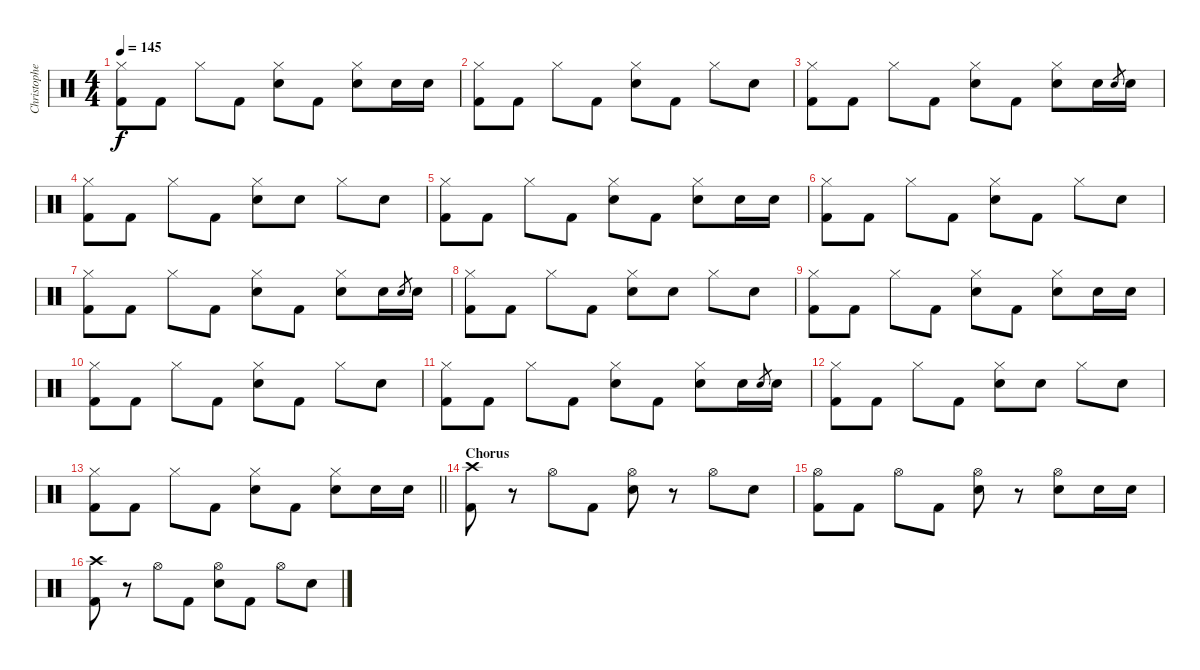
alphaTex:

\track ("Christopher - Drums" "Christophe") {instrument percussion}
\staff {score}
\articulation defaults
\ts (4 4)
\tempo 145
\clef neutral
\ks c
("Hi-Hat (closed)" "Kick (hit) 2").8{dy f} "Kick (hit) 2".8 "Hi-Hat (closed)".8 "Kick (hit) 2".8 ("Hi-Hat (closed)" "Electric Snare (hit)").8 "Kick (hit) 2".8 ("Hi-Hat (closed)" "Electric Snare (hit)").8 "Electric Snare (hit)".16 "Electric Snare (hit)".16 |
("Hi-Hat (closed)" "Kick (hit) 2").8 "Kick (hit) 2".8 "Hi-Hat (closed)".8 "Kick (hit) 2".8 ("Hi-Hat (closed)" "Electric Snare (hit)").8 "Kick (hit) 2".8 "Hi-Hat (closed)".8 "Electric Snare (hit)".8 |
("Hi-Hat (closed)" "Kick (hit) 2").8 "Kick (hit) 2".8 "Hi-Hat (closed)".8 "Kick (hit) 2".8 ("Hi-Hat (closed)" "Electric Snare (hit)").8 "Kick (hit) 2".8 ("Hi-Hat (closed)" "Electric Snare (hit)").8 "Electric Snare (hit)".16 "Electric Snare (hit)".8{gr} "Electric Snare (hit)".16 |
("Hi-Hat (closed)" "Kick (hit) 2").8 "Kick (hit) 2".8 "Hi-Hat (closed)".8 "Kick (hit) 2".8 ("Hi-Hat (closed)" "Electric Snare (hit)").8 "Electric Snare (hit)".8 "Hi-Hat (closed)".8 "Electric Snare (hit)".8 |
("Hi-Hat (closed)" "Kick (hit) 2").8 "Kick (hit) 2".8 "Hi-Hat (closed)".8 "Kick (hit) 2".8 ("Hi-Hat (closed)" "Electric Snare (hit)").8 "Kick (hit) 2".8 ("Hi-Hat (closed)" "Electric Snare (hit)").8 "Electric Snare (hit)".16 "Electric Snare (hit)".16 |
("Hi-Hat (closed)" "Kick (hit) 2").8 "Kick (hit) 2".8 "Hi-Hat (closed)".8 "Kick (hit) 2".8 ("Hi-Hat (closed)" "Electric Snare (hit)").8 "Kick (hit) 2".8 "Hi-Hat (closed)".8 "Electric Snare (hit)".8 |
("Hi-Hat (closed)" "Kick (hit) 2").8 "Kick (hit) 2".8 "Hi-Hat (closed)".8 "Kick (hit) 2".8 ("Hi-Hat (closed)" "Electric Snare (hit)").8 "Kick (hit) 2".8 ("Hi-Hat (closed)" "Electric Snare (hit)").8 "Electric Snare (hit)".16 "Electric Snare (hit)".8{gr} "Electric Snare (hit)".16 |
("Hi-Hat (closed)" "Kick (hit) 2").8 "Kick (hit) 2".8 "Hi-Hat (closed)".8 "Kick (hit) 2".8 ("Hi-Hat (closed)" "Electric Snare (hit)").8 "Electric Snare (hit)".8 "Hi-Hat (closed)".8 "Electric Snare (hit)".8 |
("Hi-Hat (closed)" "Kick (hit) 2").8 "Kick (hit) 2".8 "Hi-Hat (closed)".8 "Kick (hit) 2".8 ("Hi-Hat (closed)" "Electric Snare (hit)").8 "Kick (hit) 2".8 ("Hi-Hat (closed)" "Electric Snare (hit)").8 "Electric Snare (hit)".16 "Electric Snare (hit)".16 |
("Hi-Hat (closed)" "Kick (hit) 2").8 "Kick (hit) 2".8 "Hi-Hat (closed)".8 "Kick (hit) 2".8 ("Hi-Hat (closed)" "Electric Snare (hit)").8 "Kick (hit) 2".8 "Hi-Hat (closed)".8 "Electric Snare (hit)".8 |
("Hi-Hat (closed)" "Kick (hit) 2").8 "Kick (hit) 2".8 "Hi-Hat (closed)".8 "Kick (hit) 2".8 ("Hi-Hat (closed)" "Electric Snare (hit)").8 "Kick (hit) 2".8 ("Hi-Hat (closed)" "Electric Snare (hit)").8 "Electric Snare (hit)".16 "Electric Snare (hit)".8{gr} "Electric Snare (hit)".16 |
("Hi-Hat (closed)" "Kick (hit) 2").8 "Kick (hit) 2".8 "Hi-Hat (closed)".8 "Kick (hit) 2".8 ("Hi-Hat (closed)" "Electric Snare (hit)").8 "Electric Snare (hit)".8 "Hi-Hat (closed)".8 "Electric Snare (hit)".8 |
\barLineRight lightlight
("Hi-Hat (closed)" "Kick (hit) 2").8 "Kick (hit) 2".8 "Hi-Hat (closed)".8 "Kick (hit) 2".8 ("Hi-Hat (closed)" "Electric Snare (hit)").8 "Kick (hit) 2".8 ("Hi-Hat (closed)" "Electric Snare (hit)").8 "Electric Snare (hit)".16 "Electric Snare (hit)".16 |
\section ("" "Chorus")
("Crash high (hit)" "Kick (hit) 2").8 r.8 "Hi-Hat (open)".8 "Kick (hit) 2".8 ("Hi-Hat (open)" "Electric Snare (hit)").8 r.8 "Hi-Hat (open)".8 "Electric Snare (hit)".8 |
("Hi-Hat (open)" "Kick (hit) 2").8 "Kick (hit) 2".8 "Hi-Hat (open)".8 "Kick (hit) 2".8 ("Hi-Hat (open)" "Electric Snare (hit)").8 r.8 ("Hi-Hat (open)" "Electric Snare (hit)").8 "Electric Snare (hit)".16 "Electric Snare (hit)".16 |
("Crash high (hit)" "Kick (hit) 2").8 r.8 "Hi-Hat (open)".8 "Kick (hit) 2".8 ("Hi-Hat (open)" "Electric Snare (hit)").8 "Kick (hit) 2".8 "Hi-Hat (open)".8 "Electric Snare (hit)".8
